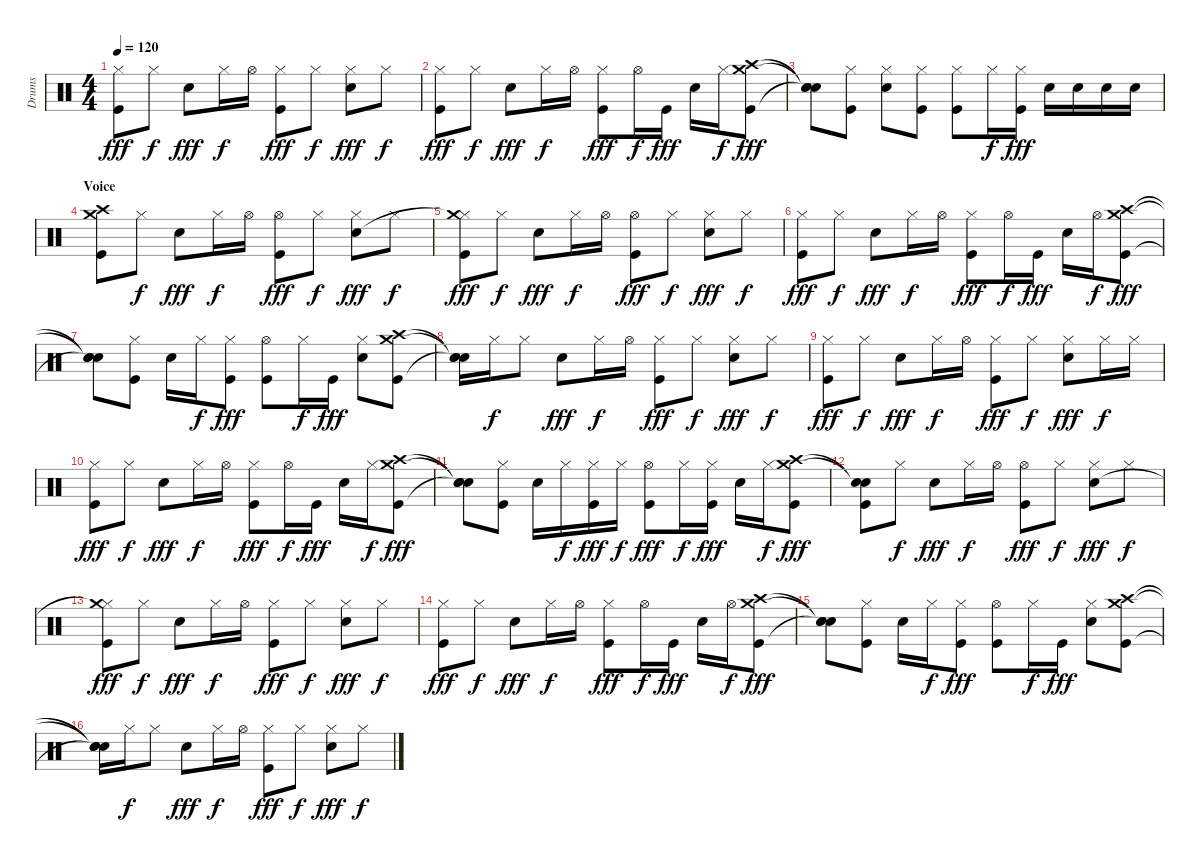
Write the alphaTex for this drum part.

\track ("Drums" "Drums") {instrument percussion}
\staff {score}
\articulation defaults
\ts (4 4)
\tempo 120
\clef neutral
\ks c
("Hi-Hat (closed)" "Kick (hit)").8{dy fff} "Hi-Hat (closed)".8{dy f} "Snare (hit) 2".8{dy fff} "Hi-Hat (closed)".16{dy f} "Hi-Hat (open)".16 ("Hi-Hat (closed)" "Kick (hit)").8{dy fff} "Hi-Hat (closed)".8{dy f} ("Hi-Hat (closed)" "Snare (hit) 2").8{dy fff} "Hi-Hat (closed)".8{dy f} |
("Hi-Hat (closed)" "Kick (hit)").8{dy fff} "Hi-Hat (closed)".8{dy f} "Snare (hit) 2".8{dy fff} "Hi-Hat (closed)".16{dy f} "Hi-Hat (open)".16 ("Hi-Hat (closed)" "Kick (hit)").8{dy fff} "Hi-Hat (open)".16{dy f} "Kick (hit)".16{dy fff} "Snare (hit) 2".16 "Hi-Hat (closed)".16{dy f} ("Crash high (hit)" "Crash medium (hit)" "Kick (hit)").8{dy fff} |
("Snare (hit)"{t} "Snare (hit)"{t} "Snare (hit)"{t}).8 ("Hi-Hat (closed)" "Kick (hit)").8 ("Hi-Hat (closed)" "Snare (hit) 2").8 ("Hi-Hat (closed)" "Kick (hit)").8 ("Hi-Hat (closed)" "Kick (hit)").8 "Hi-Hat (closed)".16{dy f} ("Hi-Hat (closed)" "Kick (hit)").16{dy fff} "Snare (hit) 2".16 "Snare (hit) 2".16 "Snare (hit) 2".16 "Snare (hit) 2".16 |
\section ("" "Voice")
("Crash high (hit)" "Crash medium (hit)" "Kick (hit)").8 "Hi-Hat (closed)".8{dy f} "Snare (hit) 2".8{dy fff} "Hi-Hat (closed)".16{dy f} "Hi-Hat (open)".16 ("Hi-Hat (open)" "Kick (hit)").8{dy fff} "Hi-Hat (closed)".8{dy f} ("Hi-Hat (closed)" "Snare (hit) 2").8{dy fff} "Hi-Hat (closed)".8{dy f} |
("Hi-Hat (closed)" "Crash medium (hit)"{t} "Kick (hit)").8{dy fff} "Hi-Hat (closed)".8{dy f} "Snare (hit) 2".8{dy fff} "Hi-Hat (closed)".16{dy f} "Hi-Hat (open)".16 ("Hi-Hat (open)" "Kick (hit)").8{dy fff} "Hi-Hat (closed)".8{dy f} ("Hi-Hat (closed)" "Snare (hit) 2").8{dy fff} "Hi-Hat (closed)".8{dy f} |
("Hi-Hat (closed)" "Kick (hit)").8{dy fff} "Hi-Hat (closed)".8{dy f} "Snare (hit) 2".8{dy fff} "Hi-Hat (closed)".16{dy f} "Hi-Hat (open)".16 ("Hi-Hat (closed)" "Kick (hit)").8{dy fff} "Hi-Hat (open)".16{dy f} "Kick (hit)".16{dy fff} "Snare (hit) 2".16 "Hi-Hat (open)".16{dy f} ("Crash high (hit)" "Crash medium (hit)" "Kick (hit)").8{dy fff} |
("Snare (hit)"{t} "Snare (hit)"{t} "Snare (hit)"{t}).8 ("Hi-Hat (closed)" "Kick (hit)").8 "Snare (hit) 2".16 "Hi-Hat (closed)".16{dy f} ("Hi-Hat (closed)" "Kick (hit)").8{dy fff} ("Hi-Hat (open)" "Kick (hit)").8 "Hi-Hat (closed)".16{dy f} "Kick (hit)".16{dy fff} ("Hi-Hat (closed)" "Snare (hit) 2").8 ("Crash high (hit)" "Crash medium (hit)" "Kick (hit)").8 |
("Snare (hit)"{t} "Snare (hit)"{t} "Snare (hit)"{t}).16 "Hi-Hat (closed)".16{dy f} "Hi-Hat (closed)".8 "Snare (hit) 2".8{dy fff} "Hi-Hat (closed)".16{dy f} "Hi-Hat (open)".16 ("Hi-Hat (closed)" "Kick (hit)").8{dy fff} "Hi-Hat (closed)".8{dy f} ("Hi-Hat (closed)" "Snare (hit) 2").8{dy fff} "Hi-Hat (closed)".8{dy f} |
("Hi-Hat (closed)" "Kick (hit)").8{dy fff} "Hi-Hat (closed)".8{dy f} "Snare (hit) 2".8{dy fff} "Hi-Hat (closed)".16{dy f} "Hi-Hat (open)".16 ("Hi-Hat (closed)" "Kick (hit)").8{dy fff} "Hi-Hat (closed)".8{dy f} ("Hi-Hat (closed)" "Snare (hit) 2").8{dy fff} "Hi-Hat (closed)".16{dy f} "Hi-Hat (closed)".16 |
("Hi-Hat (closed)" "Kick (hit)").8{dy fff} "Hi-Hat (closed)".8{dy f} "Snare (hit) 2".8{dy fff} "Hi-Hat (closed)".16{dy f} "Hi-Hat (open)".16 ("Hi-Hat (closed)" "Kick (hit)").8{dy fff} "Hi-Hat (open)".16{dy f} "Kick (hit)".16{dy fff} "Snare (hit) 2".16 "Hi-Hat (closed)".16{dy f} ("Crash high (hit)" "Crash medium (hit)" "Kick (hit)").8{dy fff} |
("Snare (hit)"{t} "Snare (hit)"{t} "Snare (hit)"{t}).8 ("Hi-Hat (closed)" "Kick (hit)").8 "Snare (hit) 2".16 "Hi-Hat (closed)".16{dy f} ("Hi-Hat (closed)" "Kick (hit)").16{dy fff} "Hi-Hat (closed)".16{dy f} ("Hi-Hat (open)" "Kick (hit)").8{dy fff} "Hi-Hat (closed)".16{dy f} ("Hi-Hat (closed)" "Kick (hit)").16{dy fff} "Snare (hit) 2".16 "Hi-Hat (closed)".16{dy f} ("Crash high (hit)" "Crash medium (hit)" "Kick (hit)").8{dy fff} |
("Snare (hit)"{t} "Snare (hit)"{t} "Kick (hit)").8 "Hi-Hat (closed)".8{dy f} "Snare (hit) 2".8{dy fff} "Hi-Hat (closed)".16{dy f} "Hi-Hat (open)".16 ("Hi-Hat (open)" "Kick (hit)").8{dy fff} "Hi-Hat (closed)".8{dy f} ("Hi-Hat (closed)" "Snare (hit) 2").8{dy fff} "Hi-Hat (closed)".8{dy f} |
("Hi-Hat (closed)" "Crash medium (hit)"{t} "Kick (hit)").8{dy fff} "Hi-Hat (closed)".8{dy f} "Snare (hit) 2".8{dy fff} "Hi-Hat (closed)".16{dy f} "Hi-Hat (open)".16 ("Hi-Hat (closed)" "Kick (hit)").8{dy fff} "Hi-Hat (closed)".8{dy f} ("Hi-Hat (closed)" "Snare (hit) 2").8{dy fff} "Hi-Hat (closed)".8{dy f} |
("Hi-Hat (closed)" "Kick (hit)").8{dy fff} "Hi-Hat (closed)".8{dy f} "Snare (hit) 2".8{dy fff} "Hi-Hat (closed)".16{dy f} "Hi-Hat (open)".16 ("Hi-Hat (closed)" "Kick (hit)").8{dy fff} "Hi-Hat (open)".16{dy f} "Kick (hit)".16{dy fff} "Snare (hit) 2".16 "Hi-Hat (open)".16{dy f} ("Crash high (hit)" "Crash medium (hit)" "Kick (hit)").8{dy fff} |
("Snare (hit)"{t} "Snare (hit)"{t} "Snare (hit)"{t}).8 ("Hi-Hat (closed)" "Kick (hit)").8 "Snare (hit) 2".16 "Hi-Hat (closed)".16{dy f} ("Hi-Hat (closed)" "Kick (hit)").8{dy fff} ("Hi-Hat (open)" "Kick (hit)").8 "Hi-Hat (closed)".16{dy f} "Kick (hit)".16{dy fff} ("Hi-Hat (closed)" "Snare (hit) 2").8 ("Crash high (hit)" "Crash medium (hit)" "Kick (hit)").8 |
("Snare (hit)"{t} "Snare (hit)"{t} "Snare (hit)"{t}).16 "Hi-Hat (closed)".16{dy f} "Hi-Hat (closed)".8 "Snare (hit) 2".8{dy fff} "Hi-Hat (closed)".16{dy f} "Hi-Hat (open)".16 ("Hi-Hat (closed)" "Kick (hit)").8{dy fff} "Hi-Hat (closed)".8{dy f} ("Hi-Hat (closed)" "Snare (hit) 2").8{dy fff} "Hi-Hat (closed)".8{dy f}
